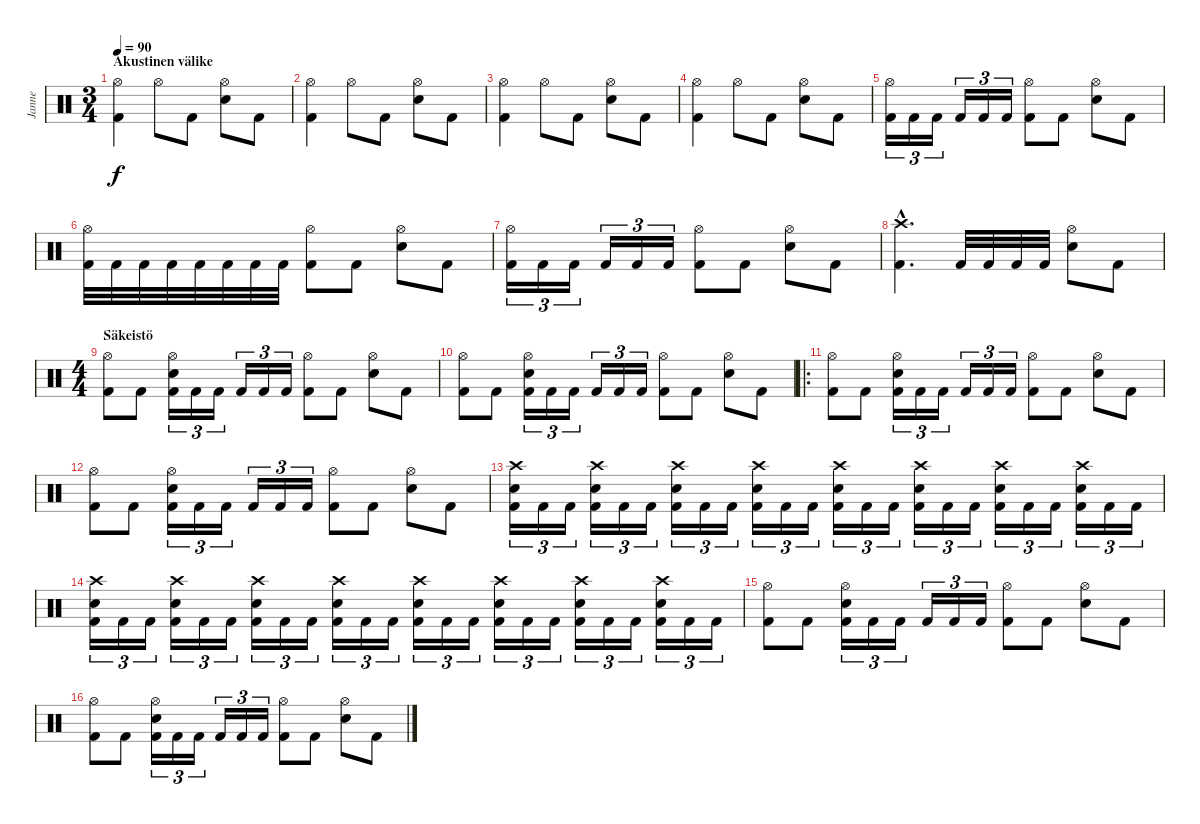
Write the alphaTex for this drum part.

\track ("Janne" "Janne") {instrument percussion}
\staff {score}
\articulation defaults
\ts (3 4)
\section ("" "Akustinen välike")
\tempo 90
\clef neutral
\ks c
("Hi-Hat (open)" "Kick (hit) 2").4{dy f} "Hi-Hat (open)".8 "Kick (hit) 2".8 ("Hi-Hat (open)" "Electric Snare (hit)").8 "Kick (hit) 2".8 |
("Hi-Hat (open)" "Kick (hit) 2").4 "Hi-Hat (open)".8 "Kick (hit) 2".8 ("Hi-Hat (open)" "Electric Snare (hit)").8 "Kick (hit) 2".8 |
("Hi-Hat (open)" "Kick (hit) 2").4 "Hi-Hat (open)".8 "Kick (hit) 2".8 ("Hi-Hat (open)" "Electric Snare (hit)").8 "Kick (hit) 2".8 |
("Hi-Hat (open)" "Kick (hit) 2").4 "Hi-Hat (open)".8 "Kick (hit) 2".8 ("Hi-Hat (open)" "Electric Snare (hit)").8 "Kick (hit) 2".8 |
("Hi-Hat (open)" "Kick (hit) 2").16{tu (3 2)} "Kick (hit) 2".16{tu (3 2)} "Kick (hit) 2".16{tu (3 2)} "Kick (hit) 2".16{tu (3 2)} "Kick (hit) 2".16{tu (3 2)} "Kick (hit) 2".16{tu (3 2)} ("Hi-Hat (open)" "Kick (hit) 2").8 "Kick (hit) 2".8 ("Hi-Hat (open)" "Electric Snare (hit)").8 "Kick (hit) 2".8 |
("Hi-Hat (open)" "Kick (hit) 2").32 "Kick (hit) 2".32 "Kick (hit) 2".32 "Kick (hit) 2".32 "Kick (hit) 2".32 "Kick (hit) 2".32 "Kick (hit) 2".32 "Kick (hit) 2".32 ("Hi-Hat (open)" "Kick (hit) 2").8 "Kick (hit) 2".8 ("Hi-Hat (open)" "Electric Snare (hit)").8 "Kick (hit) 2".8 |
("Hi-Hat (open)" "Kick (hit) 2").16{tu (3 2)} "Kick (hit) 2".16{tu (3 2)} "Kick (hit) 2".16{tu (3 2)} "Kick (hit) 2".16{tu (3 2)} "Kick (hit) 2".16{tu (3 2)} "Kick (hit) 2".16{tu (3 2)} ("Hi-Hat (open)" "Kick (hit) 2").8 "Kick (hit) 2".8 ("Hi-Hat (open)" "Electric Snare (hit)").8 "Kick (hit) 2".8 |
("Crash high (hit)"{hac} "Kick (hit) 2"{hac}).4{d} "Kick (hit) 2".32 "Kick (hit) 2".32 "Kick (hit) 2".32 "Kick (hit) 2".32 ("Hi-Hat (open)" "Electric Snare (hit)").8 "Kick (hit) 2".8 |
\ts (4 4)
\section ("" "Säkeistö")
("Hi-Hat (open)" "Kick (hit) 2").8 "Kick (hit) 2".8 ("Hi-Hat (open)" "Electric Snare (hit)" "Kick (hit) 2").16{tu (3 2)} "Kick (hit) 2".16{tu (3 2)} "Kick (hit) 2".16{tu (3 2)} "Kick (hit) 2".16{tu (3 2)} "Kick (hit) 2".16{tu (3 2)} "Kick (hit) 2".16{tu (3 2)} ("Hi-Hat (open)" "Kick (hit) 2").8 "Kick (hit) 2".8 ("Hi-Hat (open)" "Electric Snare (hit)").8 "Kick (hit) 2".8 |
("Hi-Hat (open)" "Kick (hit) 2").8 "Kick (hit) 2".8 ("Hi-Hat (open)" "Electric Snare (hit)" "Kick (hit) 2").16{tu (3 2)} "Kick (hit) 2".16{tu (3 2)} "Kick (hit) 2".16{tu (3 2)} "Kick (hit) 2".16{tu (3 2)} "Kick (hit) 2".16{tu (3 2)} "Kick (hit) 2".16{tu (3 2)} ("Hi-Hat (open)" "Kick (hit) 2").8 "Kick (hit) 2".8 ("Hi-Hat (open)" "Electric Snare (hit)").8 "Kick (hit) 2".8 |
\ro
("Hi-Hat (open)" "Kick (hit) 2").8 "Kick (hit) 2".8 ("Hi-Hat (open)" "Electric Snare (hit)" "Kick (hit) 2").16{tu (3 2)} "Kick (hit) 2".16{tu (3 2)} "Kick (hit) 2".16{tu (3 2)} "Kick (hit) 2".16{tu (3 2)} "Kick (hit) 2".16{tu (3 2)} "Kick (hit) 2".16{tu (3 2)} ("Hi-Hat (open)" "Kick (hit) 2").8 "Kick (hit) 2".8 ("Hi-Hat (open)" "Electric Snare (hit)").8 "Kick (hit) 2".8 |
("Hi-Hat (open)" "Kick (hit) 2").8 "Kick (hit) 2".8 ("Hi-Hat (open)" "Electric Snare (hit)" "Kick (hit) 2").16{tu (3 2)} "Kick (hit) 2".16{tu (3 2)} "Kick (hit) 2".16{tu (3 2)} "Kick (hit) 2".16{tu (3 2)} "Kick (hit) 2".16{tu (3 2)} "Kick (hit) 2".16{tu (3 2)} ("Hi-Hat (open)" "Kick (hit) 2").8 "Kick (hit) 2".8 ("Hi-Hat (open)" "Electric Snare (hit)").8 "Kick (hit) 2".8 |
("Crash high (hit)" "Electric Snare (hit)" "Kick (hit) 2").16{tu (3 2)} "Kick (hit) 2".16{tu (3 2)} "Kick (hit) 2".16{tu (3 2)} ("Crash high (hit)" "Electric Snare (hit)" "Kick (hit) 2").16{tu (3 2)} "Kick (hit) 2".16{tu (3 2)} "Kick (hit) 2".16{tu (3 2)} ("Crash high (hit)" "Electric Snare (hit)" "Kick (hit) 2").16{tu (3 2)} "Kick (hit) 2".16{tu (3 2)} "Kick (hit) 2".16{tu (3 2)} ("Crash high (hit)" "Electric Snare (hit)" "Kick (hit) 2").16{tu (3 2)} "Kick (hit) 2".16{tu (3 2)} "Kick (hit) 2".16{tu (3 2)} ("Crash high (hit)" "Electric Snare (hit)" "Kick (hit) 2").16{tu (3 2)} "Kick (hit) 2".16{tu (3 2)} "Kick (hit) 2".16{tu (3 2)} ("Crash high (hit)" "Electric Snare (hit)" "Kick (hit) 2").16{tu (3 2)} "Kick (hit) 2".16{tu (3 2)} "Kick (hit) 2".16{tu (3 2)} ("Crash high (hit)" "Electric Snare (hit)" "Kick (hit) 2").16{tu (3 2)} "Kick (hit) 2".16{tu (3 2)} "Kick (hit) 2".16{tu (3 2)} ("Crash high (hit)" "Electric Snare (hit)" "Kick (hit) 2").16{tu (3 2)} "Kick (hit) 2".16{tu (3 2)} "Kick (hit) 2".16{tu (3 2)} |
("Crash high (hit)" "Electric Snare (hit)" "Kick (hit) 2").16{tu (3 2)} "Kick (hit) 2".16{tu (3 2)} "Kick (hit) 2".16{tu (3 2)} ("Crash high (hit)" "Electric Snare (hit)" "Kick (hit) 2").16{tu (3 2)} "Kick (hit) 2".16{tu (3 2)} "Kick (hit) 2".16{tu (3 2)} ("Crash high (hit)" "Electric Snare (hit)" "Kick (hit) 2").16{tu (3 2)} "Kick (hit) 2".16{tu (3 2)} "Kick (hit) 2".16{tu (3 2)} ("Crash high (hit)" "Electric Snare (hit)" "Kick (hit) 2").16{tu (3 2)} "Kick (hit) 2".16{tu (3 2)} "Kick (hit) 2".16{tu (3 2)} ("Crash high (hit)" "Electric Snare (hit)" "Kick (hit) 2").16{tu (3 2)} "Kick (hit) 2".16{tu (3 2)} "Kick (hit) 2".16{tu (3 2)} ("Crash high (hit)" "Electric Snare (hit)" "Kick (hit) 2").16{tu (3 2)} "Kick (hit) 2".16{tu (3 2)} "Kick (hit) 2".16{tu (3 2)} ("Crash high (hit)" "Electric Snare (hit)" "Kick (hit) 2").16{tu (3 2)} "Kick (hit) 2".16{tu (3 2)} "Kick (hit) 2".16{tu (3 2)} ("Crash high (hit)" "Electric Snare (hit)" "Kick (hit) 2").16{tu (3 2)} "Kick (hit) 2".16{tu (3 2)} "Kick (hit) 2".16{tu (3 2)} |
("Hi-Hat (open)" "Kick (hit) 2").8 "Kick (hit) 2".8 ("Hi-Hat (open)" "Electric Snare (hit)" "Kick (hit) 2").16{tu (3 2)} "Kick (hit) 2".16{tu (3 2)} "Kick (hit) 2".16{tu (3 2)} "Kick (hit) 2".16{tu (3 2)} "Kick (hit) 2".16{tu (3 2)} "Kick (hit) 2".16{tu (3 2)} ("Hi-Hat (open)" "Kick (hit) 2").8 "Kick (hit) 2".8 ("Hi-Hat (open)" "Electric Snare (hit)").8 "Kick (hit) 2".8 |
("Hi-Hat (open)" "Kick (hit) 2").8 "Kick (hit) 2".8 ("Hi-Hat (open)" "Electric Snare (hit)" "Kick (hit) 2").16{tu (3 2)} "Kick (hit) 2".16{tu (3 2)} "Kick (hit) 2".16{tu (3 2)} "Kick (hit) 2".16{tu (3 2)} "Kick (hit) 2".16{tu (3 2)} "Kick (hit) 2".16{tu (3 2)} ("Hi-Hat (open)" "Kick (hit) 2").8 "Kick (hit) 2".8 ("Hi-Hat (open)" "Electric Snare (hit)").8 "Kick (hit) 2".8
